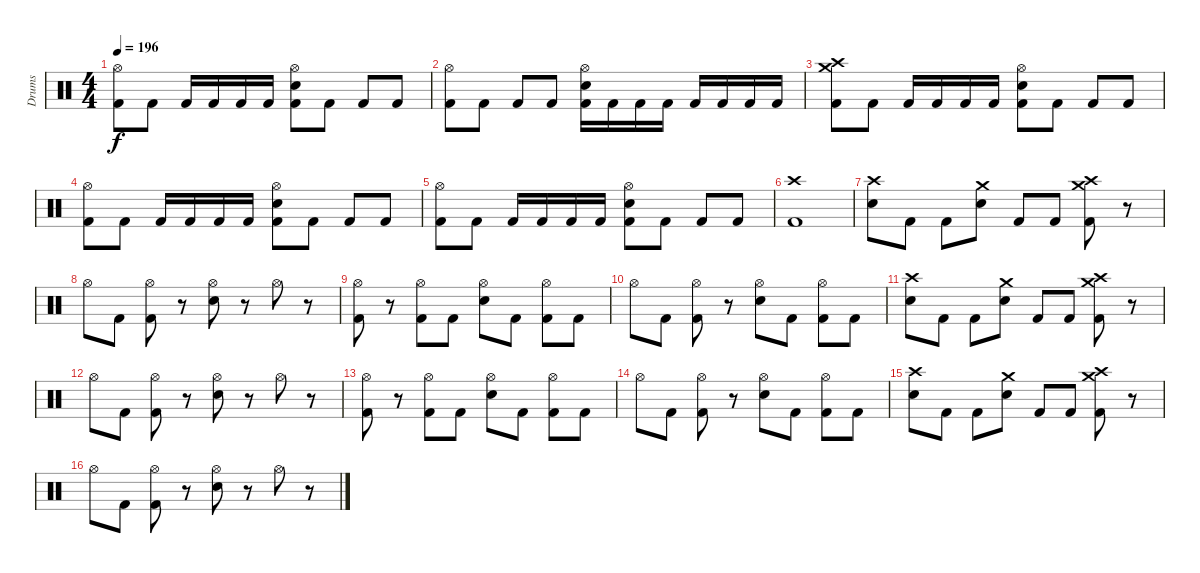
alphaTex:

\track ("Drums" "Drums") {instrument percussion}
\staff {score}
\articulation defaults
\ts (4 4)
\tempo 196
\clef neutral
\ks c
("Hi-Hat (open)" "Kick (hit) 2").8{dy f} "Kick (hit) 2".8 "Kick (hit) 2".16 "Kick (hit) 2".16 "Kick (hit) 2".16 "Kick (hit) 2".16 ("Hi-Hat (open)" "Snare (hit) 2" "Kick (hit) 2").8 "Kick (hit) 2".8 "Kick (hit) 2".8 "Kick (hit) 2".8 |
("Hi-Hat (open)" "Kick (hit) 2").8 "Kick (hit) 2".8 "Kick (hit) 2".8 "Kick (hit) 2".8 ("Hi-Hat (open)" "Snare (hit) 2" "Kick (hit) 2").16 "Kick (hit) 2".16 "Kick (hit) 2".16 "Kick (hit) 2".16 "Kick (hit) 2".16 "Kick (hit) 2".16 "Kick (hit) 2".16 "Kick (hit) 2".16 |
("Crash high (hit)" "Crash medium (hit)" "Kick (hit) 2").8 "Kick (hit) 2".8 "Kick (hit) 2".16 "Kick (hit) 2".16 "Kick (hit) 2".16 "Kick (hit) 2".16 ("Hi-Hat (open)" "Snare (hit) 2" "Kick (hit) 2").8 "Kick (hit) 2".8 "Kick (hit) 2".8 "Kick (hit) 2".8 |
("Hi-Hat (open)" "Kick (hit) 2").8 "Kick (hit) 2".8 "Kick (hit) 2".16 "Kick (hit) 2".16 "Kick (hit) 2".16 "Kick (hit) 2".16 ("Hi-Hat (open)" "Snare (hit) 2" "Kick (hit) 2").8 "Kick (hit) 2".8 "Kick (hit) 2".8 "Kick (hit) 2".8 |
("Hi-Hat (open)" "Kick (hit) 2").8 "Kick (hit) 2".8 "Kick (hit) 2".16 "Kick (hit) 2".16 "Kick (hit) 2".16 "Kick (hit) 2".16 ("Hi-Hat (open)" "Snare (hit) 2" "Kick (hit) 2").8 "Kick (hit) 2".8 "Kick (hit) 2".8 "Kick (hit) 2".8 |
("Crash high (hit)" "Kick (hit) 2").1 |
("Crash high (hit)" "Snare (hit) 2").8 "Kick (hit) 2".8 "Kick (hit) 2".8 ("Crash medium (hit)" "Snare (hit) 2").8 "Kick (hit) 2".8 "Kick (hit) 2".8 ("Crash high (hit)" "Crash medium (hit)" "Kick (hit) 2").8 r.8 |
"Hi-Hat (open)".8 "Kick (hit) 2".8 ("Hi-Hat (open)" "Kick (hit) 2").8 r.8 ("Hi-Hat (open)" "Snare (hit) 2").8 r.8 "Hi-Hat (open)".8 r.8 |
("Hi-Hat (open)" "Kick (hit) 2").8 r.8 ("Hi-Hat (open)" "Kick (hit) 2").8 "Kick (hit) 2".8 ("Hi-Hat (open)" "Snare (hit) 2").8 "Kick (hit) 2".8 ("Hi-Hat (open)" "Kick (hit) 2").8 "Kick (hit) 2".8 |
"Hi-Hat (open)".8 "Kick (hit) 2".8 ("Hi-Hat (open)" "Kick (hit) 2").8 r.8 ("Hi-Hat (open)" "Snare (hit) 2").8 "Kick (hit) 2".8 ("Hi-Hat (open)" "Kick (hit) 2").8 "Kick (hit) 2".8 |
("Crash high (hit)" "Snare (hit) 2").8 "Kick (hit) 2".8 "Kick (hit) 2".8 ("Crash medium (hit)" "Snare (hit) 2").8 "Kick (hit) 2".8 "Kick (hit) 2".8 ("Crash high (hit)" "Crash medium (hit)" "Kick (hit) 2").8 r.8 |
"Hi-Hat (open)".8 "Kick (hit) 2".8 ("Hi-Hat (open)" "Kick (hit) 2").8 r.8 ("Hi-Hat (open)" "Snare (hit) 2").8 r.8 "Hi-Hat (open)".8 r.8 |
("Hi-Hat (open)" "Kick (hit) 2").8 r.8 ("Hi-Hat (open)" "Kick (hit) 2").8 "Kick (hit) 2".8 ("Hi-Hat (open)" "Snare (hit) 2").8 "Kick (hit) 2".8 ("Hi-Hat (open)" "Kick (hit) 2").8 "Kick (hit) 2".8 |
"Hi-Hat (open)".8 "Kick (hit) 2".8 ("Hi-Hat (open)" "Kick (hit) 2").8 r.8 ("Hi-Hat (open)" "Snare (hit) 2").8 "Kick (hit) 2".8 ("Hi-Hat (open)" "Kick (hit) 2").8 "Kick (hit) 2".8 |
("Crash high (hit)" "Snare (hit) 2").8 "Kick (hit) 2".8 "Kick (hit) 2".8 ("Crash medium (hit)" "Snare (hit) 2").8 "Kick (hit) 2".8 "Kick (hit) 2".8 ("Crash high (hit)" "Crash medium (hit)" "Kick (hit) 2").8 r.8 |
"Hi-Hat (open)".8 "Kick (hit) 2".8 ("Hi-Hat (open)" "Kick (hit) 2").8 r.8 ("Hi-Hat (open)" "Snare (hit) 2").8 r.8 "Hi-Hat (open)".8 r.8
